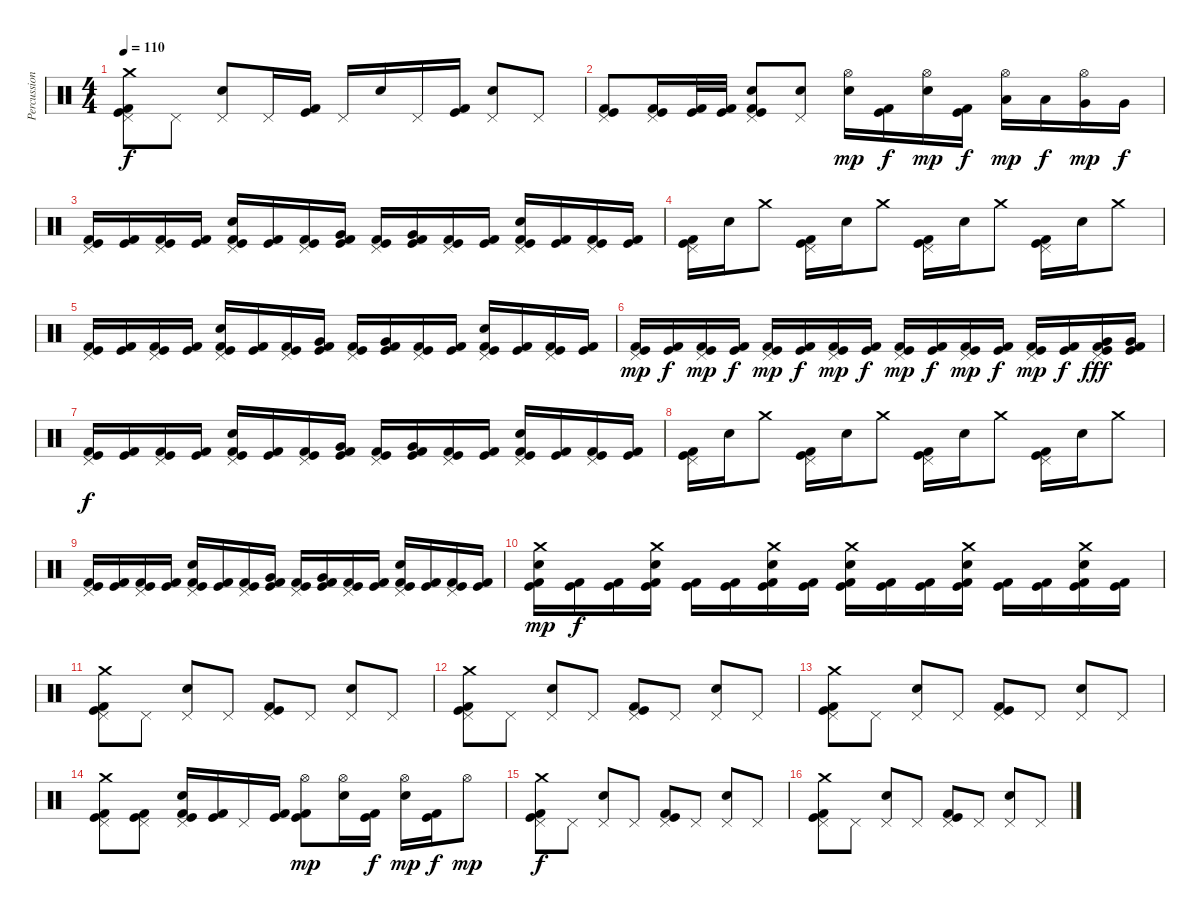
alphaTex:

\track ("Percussions" "Percussion") {instrument percussion}
\staff {score}
\articulation defaults
\ts (4 4)
\tempo 110
\clef neutral
\ks c
("Crash medium (hit)" "Pedal Hi-Hat (hit)" "Kick (hit)" "Kick (hit) 2").8{dy f} "Pedal Hi-Hat (hit)".8 ("Pedal Hi-Hat (hit)" "Electric Snare (hit)").8 "Pedal Hi-Hat (hit)".16 ("Kick (hit)" "Kick (hit) 2").16 "Pedal Hi-Hat (hit)".16 "Electric Snare (hit)".16 "Pedal Hi-Hat (hit)".16 ("Kick (hit)" "Kick (hit) 2").16 ("Pedal Hi-Hat (hit)" "Electric Snare (hit)").8 "Pedal Hi-Hat (hit)".8 |
("Pedal Hi-Hat (hit)" "Kick (hit)" "Kick (hit) 2").8 ("Pedal Hi-Hat (hit)" "Kick (hit)" "Kick (hit) 2").16 ("Kick (hit)" "Kick (hit) 2").32 ("Kick (hit)" "Kick (hit) 2").32 ("Pedal Hi-Hat (hit)" "Electric Snare (hit)" "Kick (hit)" "Kick (hit) 2").8 ("Pedal Hi-Hat (hit)" "Electric Snare (hit)").8 ("Hi-Hat (open)" "Electric Snare (hit)").16{dy mp} ("Kick (hit)" "Kick (hit) 2").16{dy f} ("Hi-Hat (open)" "Electric Snare (hit)").16{dy mp} ("Kick (hit)" "Kick (hit) 2").16{dy f} ("Hi-Hat (open)" "Low Tom (hit)").16{dy mp} "Low Tom (hit)".16{dy f} ("Hi-Hat (open)" "Very Low Tom (hit)").16{dy mp} "Very Low Tom (hit)".16{dy f} |
("Pedal Hi-Hat (hit)" "Kick (hit)" "Kick (hit) 2").16 ("Kick (hit)" "Kick (hit) 2").16 ("Pedal Hi-Hat (hit)" "Kick (hit)" "Kick (hit) 2").16 ("Kick (hit)" "Kick (hit) 2").16 ("Pedal Hi-Hat (hit)" "Electric Snare (hit)" "Kick (hit)" "Kick (hit) 2").16 ("Kick (hit)" "Kick (hit) 2").16 ("Pedal Hi-Hat (hit)" "Kick (hit)" "Kick (hit) 2").16 ("Very Low Tom (hit)" "Kick (hit)" "Kick (hit) 2").16 ("Pedal Hi-Hat (hit)" "Kick (hit)" "Kick (hit) 2").16 ("Very Low Tom (hit)" "Kick (hit)" "Kick (hit) 2").16 ("Pedal Hi-Hat (hit)" "Kick (hit)" "Kick (hit) 2").16 ("Kick (hit)" "Kick (hit) 2").16 ("Pedal Hi-Hat (hit)" "Electric Snare (hit)" "Kick (hit)" "Kick (hit) 2").16 ("Kick (hit)" "Kick (hit) 2").16 ("Pedal Hi-Hat (hit)" "Kick (hit)" "Kick (hit) 2").16 ("Kick (hit)" "Kick (hit) 2").16 |
("Pedal Hi-Hat (hit)" "Kick (hit)" "Kick (hit) 2").16 "Electric Snare (hit)".16 "Crash medium (hit)".8 ("Pedal Hi-Hat (hit)" "Kick (hit)" "Kick (hit) 2").16 "Electric Snare (hit)".16 "Crash medium (hit)".8 ("Pedal Hi-Hat (hit)" "Kick (hit)" "Kick (hit) 2").16 "Electric Snare (hit)".16 "Crash medium (hit)".8 ("Pedal Hi-Hat (hit)" "Kick (hit)" "Kick (hit) 2").16 "Electric Snare (hit)".16 "Crash medium (hit)".8 |
("Pedal Hi-Hat (hit)" "Kick (hit)" "Kick (hit) 2").16 ("Kick (hit)" "Kick (hit) 2").16 ("Pedal Hi-Hat (hit)" "Kick (hit)" "Kick (hit) 2").16 ("Kick (hit)" "Kick (hit) 2").16 ("Pedal Hi-Hat (hit)" "Electric Snare (hit)" "Kick (hit)" "Kick (hit) 2").16 ("Kick (hit)" "Kick (hit) 2").16 ("Pedal Hi-Hat (hit)" "Kick (hit)" "Kick (hit) 2").16 ("Very Low Tom (hit)" "Kick (hit)" "Kick (hit) 2").16 ("Pedal Hi-Hat (hit)" "Kick (hit)" "Kick (hit) 2").16 ("Very Low Tom (hit)" "Kick (hit)" "Kick (hit) 2").16 ("Pedal Hi-Hat (hit)" "Kick (hit)" "Kick (hit) 2").16 ("Kick (hit)" "Kick (hit) 2").16 ("Pedal Hi-Hat (hit)" "Electric Snare (hit)" "Kick (hit)" "Kick (hit) 2").16 ("Kick (hit)" "Kick (hit) 2").16 ("Pedal Hi-Hat (hit)" "Kick (hit)" "Kick (hit) 2").16 ("Kick (hit)" "Kick (hit) 2").16 |
("Pedal Hi-Hat (hit)" "Kick (hit)" "Kick (hit) 2").16{dy mp} ("Kick (hit)" "Kick (hit) 2").16{dy f} ("Pedal Hi-Hat (hit)" "Kick (hit)" "Kick (hit) 2").16{dy mp} ("Kick (hit)" "Kick (hit) 2").16{dy f} ("Pedal Hi-Hat (hit)" "Kick (hit)" "Kick (hit) 2").16{dy mp} ("Kick (hit)" "Kick (hit) 2").16{dy f} ("Pedal Hi-Hat (hit)" "Kick (hit)" "Kick (hit) 2").16{dy mp} ("Kick (hit)" "Kick (hit) 2").16{dy f} ("Pedal Hi-Hat (hit)" "Kick (hit)" "Kick (hit) 2").16{dy mp} ("Kick (hit)" "Kick (hit) 2").16{dy f} ("Pedal Hi-Hat (hit)" "Kick (hit)" "Kick (hit) 2").16{dy mp} ("Kick (hit)" "Kick (hit) 2").16{dy f} ("Pedal Hi-Hat (hit)" "Kick (hit)" "Kick (hit) 2").16{dy mp} ("Kick (hit)" "Kick (hit) 2").16{dy f} ("Pedal Hi-Hat (hit)" "Very Low Tom (hit)" "Kick (hit)" "Kick (hit) 2").16{dy fff} ("Very Low Tom (hit)" "Kick (hit)" "Kick (hit) 2").16 |
("Pedal Hi-Hat (hit)" "Kick (hit)" "Kick (hit) 2").16{dy f} ("Kick (hit)" "Kick (hit) 2").16 ("Pedal Hi-Hat (hit)" "Kick (hit)" "Kick (hit) 2").16 ("Kick (hit)" "Kick (hit) 2").16 ("Pedal Hi-Hat (hit)" "Electric Snare (hit)" "Kick (hit)" "Kick (hit) 2").16 ("Kick (hit)" "Kick (hit) 2").16 ("Pedal Hi-Hat (hit)" "Kick (hit)" "Kick (hit) 2").16 ("Very Low Tom (hit)" "Kick (hit)" "Kick (hit) 2").16 ("Pedal Hi-Hat (hit)" "Kick (hit)" "Kick (hit) 2").16 ("Very Low Tom (hit)" "Kick (hit)" "Kick (hit) 2").16 ("Pedal Hi-Hat (hit)" "Kick (hit)" "Kick (hit) 2").16 ("Kick (hit)" "Kick (hit) 2").16 ("Pedal Hi-Hat (hit)" "Electric Snare (hit)" "Kick (hit)" "Kick (hit) 2").16 ("Kick (hit)" "Kick (hit) 2").16 ("Pedal Hi-Hat (hit)" "Kick (hit)" "Kick (hit) 2").16 ("Kick (hit)" "Kick (hit) 2").16 |
("Pedal Hi-Hat (hit)" "Kick (hit)" "Kick (hit) 2").16 "Electric Snare (hit)".16 "Crash medium (hit)".8 ("Pedal Hi-Hat (hit)" "Kick (hit)" "Kick (hit) 2").16 "Electric Snare (hit)".16 "Crash medium (hit)".8 ("Pedal Hi-Hat (hit)" "Kick (hit)" "Kick (hit) 2").16 "Electric Snare (hit)".16 "Crash medium (hit)".8 ("Pedal Hi-Hat (hit)" "Kick (hit)" "Kick (hit) 2").16 "Electric Snare (hit)".16 "Crash medium (hit)".8 |
("Pedal Hi-Hat (hit)" "Kick (hit)" "Kick (hit) 2").16 ("Kick (hit)" "Kick (hit) 2").16 ("Pedal Hi-Hat (hit)" "Kick (hit)" "Kick (hit) 2").16 ("Kick (hit)" "Kick (hit) 2").16 ("Pedal Hi-Hat (hit)" "Electric Snare (hit)" "Kick (hit)" "Kick (hit) 2").16 ("Kick (hit)" "Kick (hit) 2").16 ("Pedal Hi-Hat (hit)" "Kick (hit)" "Kick (hit) 2").16 ("Very Low Tom (hit)" "Kick (hit)" "Kick (hit) 2").16 ("Pedal Hi-Hat (hit)" "Kick (hit)" "Kick (hit) 2").16 ("Very Low Tom (hit)" "Kick (hit)" "Kick (hit) 2").16 ("Pedal Hi-Hat (hit)" "Kick (hit)" "Kick (hit) 2").16 ("Kick (hit)" "Kick (hit) 2").16 ("Pedal Hi-Hat (hit)" "Electric Snare (hit)" "Kick (hit)" "Kick (hit) 2").16 ("Kick (hit)" "Kick (hit) 2").16 ("Pedal Hi-Hat (hit)" "Kick (hit)" "Kick (hit) 2").16 ("Kick (hit)" "Kick (hit) 2").16 |
("Crash medium (hit)" "Electric Snare (hit)" "Kick (hit)" "Kick (hit) 2").16{dy mp} ("Kick (hit)" "Kick (hit) 2").16{dy f} ("Kick (hit)" "Kick (hit) 2").16 ("Crash medium (hit)" "Electric Snare (hit)" "Kick (hit)" "Kick (hit) 2").16 ("Kick (hit)" "Kick (hit) 2").16 ("Kick (hit)" "Kick (hit) 2").16 ("Crash medium (hit)" "Electric Snare (hit)" "Kick (hit)" "Kick (hit) 2").16 ("Kick (hit)" "Kick (hit) 2").16 ("Crash medium (hit)" "Electric Snare (hit)" "Kick (hit)" "Kick (hit) 2").16 ("Kick (hit)" "Kick (hit) 2").16 ("Kick (hit)" "Kick (hit) 2").16 ("Crash medium (hit)" "Electric Snare (hit)" "Kick (hit)" "Kick (hit) 2").16 ("Kick (hit)" "Kick (hit) 2").16 ("Kick (hit)" "Kick (hit) 2").16 ("Crash medium (hit)" "Electric Snare (hit)" "Kick (hit)" "Kick (hit) 2").16 ("Kick (hit)" "Kick (hit) 2").16 |
("Crash medium (hit)" "Pedal Hi-Hat (hit)" "Kick (hit)" "Kick (hit) 2").8 "Pedal Hi-Hat (hit)".8 ("Pedal Hi-Hat (hit)" "Electric Snare (hit)").8 "Pedal Hi-Hat (hit)".8 ("Pedal Hi-Hat (hit)" "Kick (hit)" "Kick (hit) 2").8 "Pedal Hi-Hat (hit)".8 ("Pedal Hi-Hat (hit)" "Electric Snare (hit)").8 "Pedal Hi-Hat (hit)".8 |
("Crash medium (hit)" "Pedal Hi-Hat (hit)" "Kick (hit)" "Kick (hit) 2").8 "Pedal Hi-Hat (hit)".8 ("Pedal Hi-Hat (hit)" "Electric Snare (hit)").8 "Pedal Hi-Hat (hit)".8 ("Pedal Hi-Hat (hit)" "Kick (hit)" "Kick (hit) 2").8 "Pedal Hi-Hat (hit)".8 ("Pedal Hi-Hat (hit)" "Electric Snare (hit)").8 "Pedal Hi-Hat (hit)".8 |
("Crash medium (hit)" "Pedal Hi-Hat (hit)" "Kick (hit)" "Kick (hit) 2").8 "Pedal Hi-Hat (hit)".8 ("Pedal Hi-Hat (hit)" "Electric Snare (hit)").8 "Pedal Hi-Hat (hit)".8 ("Pedal Hi-Hat (hit)" "Kick (hit)" "Kick (hit) 2").8 "Pedal Hi-Hat (hit)".8 ("Pedal Hi-Hat (hit)" "Electric Snare (hit)").8 "Pedal Hi-Hat (hit)".8 |
("Crash medium (hit)" "Pedal Hi-Hat (hit)" "Kick (hit)" "Kick (hit) 2").8 ("Pedal Hi-Hat (hit)" "Kick (hit)" "Kick (hit) 2").8 ("Pedal Hi-Hat (hit)" "Electric Snare (hit)" "Kick (hit)" "Kick (hit) 2").16 ("Kick (hit)" "Kick (hit) 2").16 "Pedal Hi-Hat (hit)".16 ("Kick (hit)" "Kick (hit) 2").16 ("Hi-Hat (open)" "Kick (hit)" "Kick (hit) 2").8{dy mp} ("Hi-Hat (open)" "Electric Snare (hit)").16 ("Kick (hit)" "Kick (hit) 2").16{dy f} ("Hi-Hat (open)" "Electric Snare (hit)").16{dy mp} ("Kick (hit)" "Kick (hit) 2").16{dy f} "Hi-Hat (open)".8{dy mp} |
("Crash medium (hit)" "Pedal Hi-Hat (hit)" "Kick (hit)" "Kick (hit) 2").8{dy f} "Pedal Hi-Hat (hit)".8 ("Pedal Hi-Hat (hit)" "Electric Snare (hit)").8 "Pedal Hi-Hat (hit)".8 ("Pedal Hi-Hat (hit)" "Kick (hit)" "Kick (hit) 2").8 "Pedal Hi-Hat (hit)".8 ("Pedal Hi-Hat (hit)" "Electric Snare (hit)").8 "Pedal Hi-Hat (hit)".8 |
("Crash medium (hit)" "Pedal Hi-Hat (hit)" "Kick (hit)" "Kick (hit) 2").8 "Pedal Hi-Hat (hit)".8 ("Pedal Hi-Hat (hit)" "Electric Snare (hit)").8 "Pedal Hi-Hat (hit)".8 ("Pedal Hi-Hat (hit)" "Kick (hit)" "Kick (hit) 2").8 "Pedal Hi-Hat (hit)".8 ("Pedal Hi-Hat (hit)" "Electric Snare (hit)").8 "Pedal Hi-Hat (hit)".8
